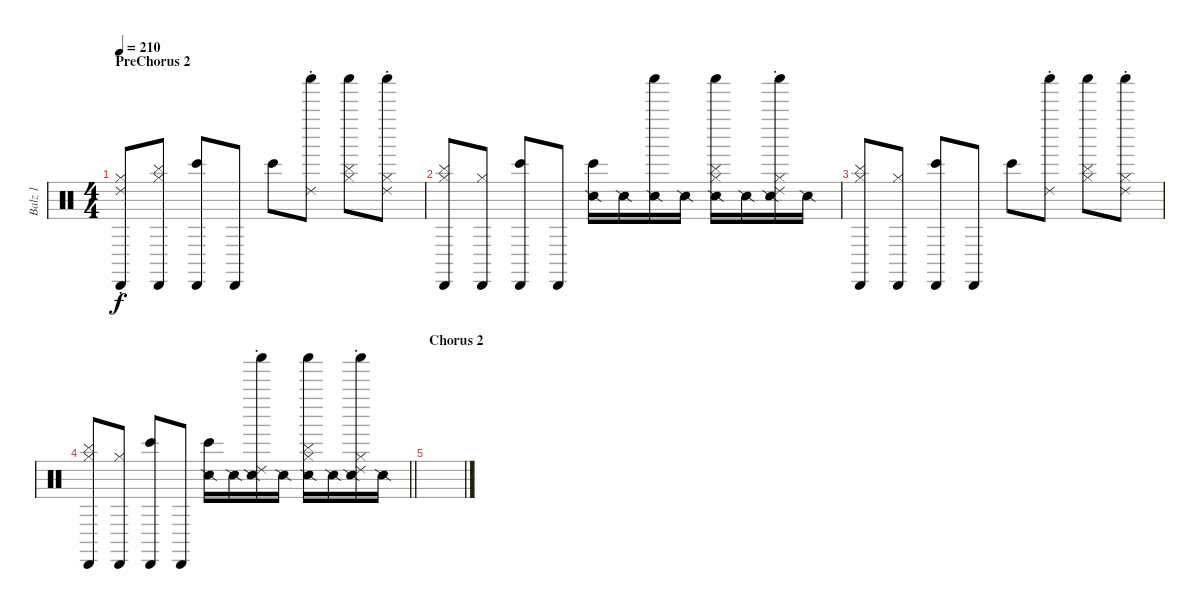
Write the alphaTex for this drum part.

\track ("Balz 1" "Balz 1") {instrument percussion}
\staff {score}
\articulation defaults
\ts (4 4)
\section ("" "PreChorus 2")
\tempo 210
\clef neutral
\ks c
("Ride (choke) 2" "Hi-Hat (closed)" "Cabasa (hit)").8{dy f} ("Cymbal (hit)" "Hi-Hat (closed)" "Cabasa (hit)").8 ("Bongo High (hit)" "Cabasa (hit)").8 "Cabasa (hit)".8 "Bongo High (hit)".8 ("Ride (choke) 2" "Shaker (hit)").8 ("Cymbal (hit)" "Shaker (hit)" "Hi-Hat (closed)").8 ("Ride (choke) 2" "Shaker (hit)" "Hi-Hat (closed)").8 |
("Cymbal (hit)" "Hi-Hat (closed)" "Cabasa (hit)").8 ("Hi-Hat (closed)" "Cabasa (hit)").8 ("Bongo High (hit)" "Cabasa (hit)").8 "Cabasa (hit)".8 ("Bongo High (hit)" "Snare (side stick) 2").16 "Snare (side stick) 2".16 ("Shaker (hit)" "Snare (side stick) 2").16 "Snare (side stick) 2".16 ("Cymbal (hit)" "Shaker (hit)" "Hi-Hat (closed)" "Snare (side stick) 2").16 "Snare (side stick) 2".16 ("Ride (choke) 2" "Shaker (hit)" "Hi-Hat (closed)" "Snare (side stick) 2").16 "Snare (side stick) 2".16 |
("Cymbal (hit)" "Hi-Hat (closed)" "Cabasa (hit)").8 ("Hi-Hat (closed)" "Cabasa (hit)").8 ("Bongo High (hit)" "Cabasa (hit)").8 "Cabasa (hit)".8 "Bongo High (hit)".8 ("Ride (choke) 2" "Shaker (hit)").8 ("Cymbal (hit)" "Shaker (hit)" "Hi-Hat (closed)").8 ("Ride (choke) 2" "Shaker (hit)" "Hi-Hat (closed)").8 |
\barLineRight lightlight
("Cymbal (hit)" "Hi-Hat (closed)" "Cabasa (hit)").8 ("Hi-Hat (closed)" "Cabasa (hit)").8 ("Bongo High (hit)" "Cabasa (hit)").8 "Cabasa (hit)".8 ("Bongo High (hit)" "Snare (side stick) 2").16 "Snare (side stick) 2".16 ("Ride (choke) 2" "Shaker (hit)" "Snare (side stick) 2").16 "Snare (side stick) 2".16 ("Cymbal (hit)" "Shaker (hit)" "Hi-Hat (closed)" "Snare (side stick) 2").16 "Snare (side stick) 2".16 ("Ride (choke) 2" "Shaker (hit)" "Hi-Hat (closed)" "Snare (side stick) 2").16 "Snare (side stick) 2".16 |
\section ("" "Chorus 2")
